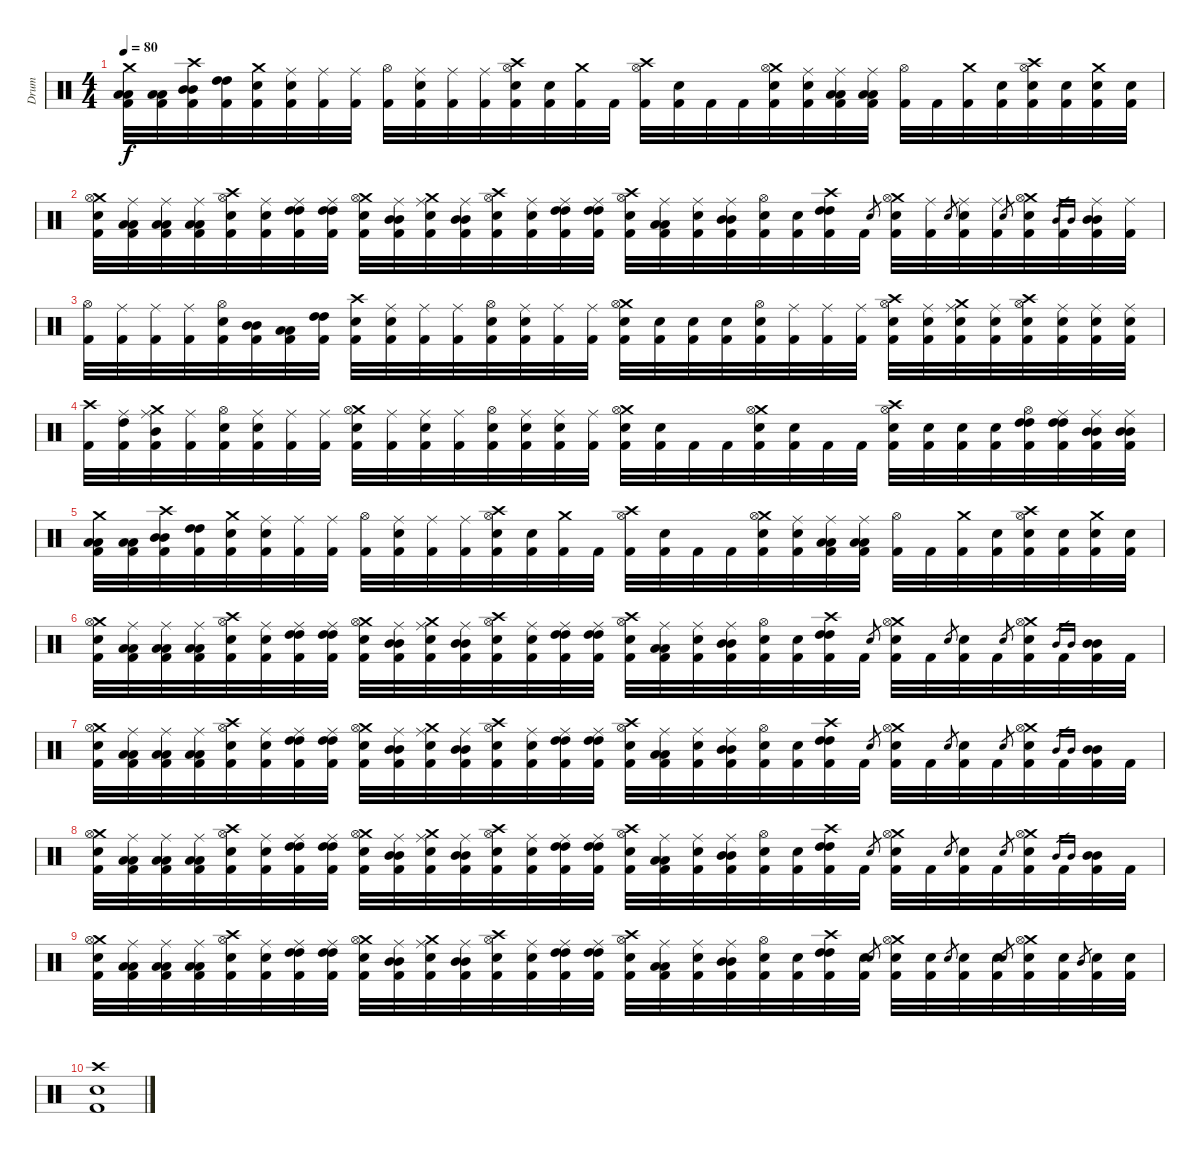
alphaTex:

\track ("Drum" "Drum") {instrument percussion}
\staff {score}
\articulation defaults
\ts (4 4)
\tempo 80
\clef neutral
\ks c
("Crash medium (hit)" "Low Tom (hit)" "Low Tom (hit)" "Kick (hit) 2").32{dy f} ("Low Tom (hit)" "Low Tom (hit)" "Kick (hit) 2").32 ("Crash high (hit)" "Mid Tom (hit)" "Mid Tom (hit)" "Kick (hit) 2").32 ("High Tom (hit)" "High Tom (hit)" "Kick (hit) 2").32 ("Crash medium (hit)" "Electric Snare (hit)" "Kick (hit) 2").32 ("Ride (middle)" "Electric Snare (hit)" "Kick (hit) 2").32 ("Ride (middle)" "Kick (hit) 2").32 ("Ride (middle)" "Kick (hit) 2").32 ("Hi-Hat (open)" "Kick (hit) 2").32 ("Ride (middle)" "Electric Snare (hit)" "Kick (hit) 2").32 ("Ride (middle)" "Kick (hit) 2").32 ("Ride (middle)" "Kick (hit) 2").32 ("Crash high (hit)" "Hi-Hat (open)" "Electric Snare (hit)" "Kick (hit) 2").32 ("Electric Snare (hit)" "Kick (hit) 2").32 ("Crash medium (hit)" "Kick (hit) 2").32 "Kick (hit) 2".32 ("Crash high (hit)" "Hi-Hat (open)" "Kick (hit) 2").32 ("Electric Snare (hit)" "Kick (hit) 2").32 "Kick (hit) 2".32 "Kick (hit) 2".32 ("Crash medium (hit)" "Hi-Hat (open)" "Electric Snare (hit)" "Kick (hit) 2").32 ("Ride (middle)" "Electric Snare (hit)" "Kick (hit) 2").32 ("Ride (middle)" "Low Tom (hit)" "Low Tom (hit)" "Kick (hit) 2").32 ("Ride (middle)" "Low Tom (hit)" "Low Tom (hit)" "Kick (hit) 2").32 ("Hi-Hat (open)" "Kick (hit) 2").32 "Kick (hit) 2".32 ("Crash medium (hit)" "Kick (hit) 2").32 ("Electric Snare (hit)" "Kick (hit) 2").32 ("Crash high (hit)" "Hi-Hat (open)" "Electric Snare (hit)" "Kick (hit) 2").32 ("Electric Snare (hit)" "Kick (hit) 2").32 ("Crash medium (hit)" "Electric Snare (hit)" "Kick (hit) 2").32 ("Electric Snare (hit)" "Kick (hit) 2").32 |
("Crash medium (hit)" "Hi-Hat (open)" "Electric Snare (hit)" "Kick (hit) 2").32 ("Ride (middle)" "Low Tom (hit)" "Low Tom (hit)" "Kick (hit) 2").32 ("Ride (middle)" "Low Tom (hit)" "Low Tom (hit)" "Kick (hit) 2").32 ("Ride (middle)" "Low Tom (hit)" "Low Tom (hit)" "Kick (hit) 2").32 ("Crash high (hit)" "Hi-Hat (open)" "Electric Snare (hit)" "Kick (hit) 2").32 ("Ride (middle)" "Electric Snare (hit)" "Kick (hit) 2").32 ("Ride (middle)" "High Tom (hit)" "High Tom (hit)" "Kick (hit) 2").32 ("Ride (middle)" "High Tom (hit)" "High Tom (hit)" "Kick (hit) 2").32 ("Crash medium (hit)" "Hi-Hat (open)" "Electric Snare (hit)" "Kick (hit) 2").32 ("Ride (middle)" "Mid Tom (hit)" "Mid Tom (hit)" "Kick (hit) 2").32 ("Ride (middle)" "Crash medium (hit)" "Electric Snare (hit)" "Kick (hit) 2").32 ("Ride (middle)" "Mid Tom (hit)" "Mid Tom (hit)" "Kick (hit) 2").32 ("Crash high (hit)" "Hi-Hat (open)" "Electric Snare (hit)" "Kick (hit) 2").32 ("Ride (middle)" "Electric Snare (hit)" "Kick (hit) 2").32 ("Ride (middle)" "High Tom (hit)" "High Tom (hit)" "Kick (hit) 2").32 ("Ride (middle)" "High Tom (hit)" "High Tom (hit)" "Kick (hit) 2").32 ("Crash high (hit)" "Hi-Hat (open)" "Electric Snare (hit)" "Kick (hit) 2").32 ("Ride (middle)" "Low Tom (hit)" "Low Tom (hit)" "Kick (hit) 2").32 ("Ride (middle)" "Electric Snare (hit)" "Kick (hit) 2").32 ("Ride (middle)" "Mid Tom (hit)" "Mid Tom (hit)" "Kick (hit) 2").32 ("Hi-Hat (open)" "Electric Snare (hit)" "Kick (hit) 2").32 ("Electric Snare (hit)" "Kick (hit) 2").32 ("Crash high (hit)" "High Tom (hit)" "High Tom (hit)" "Kick (hit) 2").32 "Kick (hit) 2".32 "Electric Snare (hit)".8{gr} ("Crash medium (hit)" "Hi-Hat (open)" "Electric Snare (hit)" "Kick (hit) 2").32 ("Ride (middle)" "Kick (hit) 2").32 "Electric Snare (hit)".8{gr} ("Ride (middle)" "Electric Snare (hit)" "Kick (hit) 2").32 ("Ride (middle)" "Kick (hit) 2").32 "Electric Snare (hit)".8{gr} ("Crash medium (hit)" "Hi-Hat (open)" "Electric Snare (hit)" "Kick (hit) 2").32 ("Ride (middle)" "Kick (hit) 2").32 "Mid Tom (hit)".16{gr} "Mid Tom (hit)".16{gr} ("Ride (middle)" "Mid Tom (hit)" "Mid Tom (hit)" "Kick (hit) 2").32 ("Ride (middle)" "Kick (hit) 2").32 |
("Hi-Hat (open)" "Kick (hit) 2").32 ("Ride (middle)" "Kick (hit) 2").32 ("Ride (middle)" "Kick (hit) 2").32 ("Ride (middle)" "Kick (hit) 2").32 ("Hi-Hat (open)" "Electric Snare (hit)" "Kick (hit) 2").32 ("Mid Tom (hit)" "Mid Tom (hit)" "Kick (hit) 2").32 ("Low Tom (hit)" "Low Tom (hit)" "Kick (hit) 2").32 ("High Tom (hit)" "High Tom (hit)" "Kick (hit) 2").32 ("Crash high (hit)" "Electric Snare (hit)" "Kick (hit) 2").32 ("Ride (middle)" "Electric Snare (hit)" "Kick (hit) 2").32 ("Ride (middle)" "Kick (hit) 2").32 ("Ride (middle)" "Kick (hit) 2").32 ("Hi-Hat (open)" "Electric Snare (hit)" "Kick (hit) 2").32 ("Ride (middle)" "Electric Snare (hit)" "Kick (hit) 2").32 ("Ride (middle)" "Kick (hit) 2").32 ("Ride (middle)" "Kick (hit) 2").32 ("Crash medium (hit)" "Hi-Hat (open)" "Electric Snare (hit)" "Kick (hit) 2").32 ("Electric Snare (hit)" "Kick (hit) 2").32 ("Electric Snare (hit)" "Kick (hit) 2").32 ("Electric Snare (hit)" "Kick (hit) 2").32 ("Hi-Hat (open)" "Electric Snare (hit)" "Kick (hit) 2").32 ("Ride (middle)" "Kick (hit) 2").32 ("Ride (middle)" "Kick (hit) 2").32 ("Ride (middle)" "Kick (hit) 2").32 ("Crash high (hit)" "Hi-Hat (open)" "Electric Snare (hit)" "Kick (hit) 2").32 ("Ride (middle)" "Electric Snare (hit)" "Kick (hit) 2").32 ("Ride (middle)" "Crash medium (hit)" "Electric Snare (hit)" "Kick (hit) 2").32 ("Ride (middle)" "Electric Snare (hit)" "Kick (hit) 2").32 ("Crash high (hit)" "Hi-Hat (open)" "Electric Snare (hit)" "Kick (hit) 2").32 ("Ride (middle)" "Electric Snare (hit)" "Kick (hit) 2").32 ("Ride (middle)" "Electric Snare (hit)" "Kick (hit) 2").32 ("Ride (middle)" "Electric Snare (hit)" "Kick (hit) 2").32 |
("Crash high (hit)" "Kick (hit) 2").32 ("Ride (middle)" "High Tom (hit)" "Kick (hit) 2").32 ("Ride (middle)" "Crash medium (hit)" "Mid Tom (hit)" "Kick (hit) 2").32 ("Ride (middle)" "Kick (hit) 2").32 ("Hi-Hat (open)" "Electric Snare (hit)" "Kick (hit) 2").32 ("Ride (middle)" "Electric Snare (hit)" "Kick (hit) 2").32 ("Ride (middle)" "Kick (hit) 2").32 ("Ride (middle)" "Kick (hit) 2").32 ("Crash medium (hit)" "Hi-Hat (open)" "Electric Snare (hit)" "Kick (hit) 2").32 ("Ride (middle)" "Kick (hit) 2").32 ("Ride (middle)" "Electric Snare (hit)" "Kick (hit) 2").32 ("Ride (middle)" "Kick (hit) 2").32 ("Hi-Hat (open)" "Electric Snare (hit)" "Kick (hit) 2").32 ("Ride (middle)" "Electric Snare (hit)" "Kick (hit) 2").32 ("Ride (middle)" "Electric Snare (hit)" "Kick (hit) 2").32 ("Ride (middle)" "Kick (hit) 2").32 ("Crash medium (hit)" "Hi-Hat (open)" "Electric Snare (hit)" "Kick (hit) 2").32 ("Electric Snare (hit)" "Kick (hit) 2").32 "Kick (hit) 2".32 "Kick (hit) 2".32 ("Crash medium (hit)" "Hi-Hat (open)" "Electric Snare (hit)" "Kick (hit) 2").32 ("Electric Snare (hit)" "Kick (hit) 2").32 "Kick (hit) 2".32 "Kick (hit) 2".32 ("Crash high (hit)" "Hi-Hat (open)" "Electric Snare (hit)" "Kick (hit) 2").32 ("Electric Snare (hit)" "Kick (hit) 2").32 ("Electric Snare (hit)" "Kick (hit) 2").32 ("Electric Snare (hit)" "Kick (hit) 2").32 ("Hi-Hat (open)" "High Tom (hit)" "High Tom (hit)" "Kick (hit) 2").32 ("Ride (middle)" "High Tom (hit)" "High Tom (hit)" "Kick (hit) 2").32 ("Ride (middle)" "Mid Tom (hit)" "Mid Tom (hit)" "Kick (hit) 2").32 ("Ride (middle)" "Mid Tom (hit)" "Mid Tom (hit)" "Kick (hit) 2").32 |
("Crash medium (hit)" "Low Tom (hit)" "Low Tom (hit)" "Kick (hit) 2").32 ("Low Tom (hit)" "Low Tom (hit)" "Kick (hit) 2").32 ("Crash high (hit)" "Mid Tom (hit)" "Mid Tom (hit)" "Kick (hit) 2").32 ("High Tom (hit)" "High Tom (hit)" "Kick (hit) 2").32 ("Crash medium (hit)" "Electric Snare (hit)" "Kick (hit) 2").32 ("Ride (middle)" "Electric Snare (hit)" "Kick (hit) 2").32 ("Ride (middle)" "Kick (hit) 2").32 ("Ride (middle)" "Kick (hit) 2").32 ("Hi-Hat (open)" "Kick (hit) 2").32 ("Ride (middle)" "Electric Snare (hit)" "Kick (hit) 2").32 ("Ride (middle)" "Kick (hit) 2").32 ("Ride (middle)" "Kick (hit) 2").32 ("Crash high (hit)" "Hi-Hat (open)" "Electric Snare (hit)" "Kick (hit) 2").32 ("Electric Snare (hit)" "Kick (hit) 2").32 ("Crash medium (hit)" "Kick (hit) 2").32 "Kick (hit) 2".32 ("Crash high (hit)" "Hi-Hat (open)" "Kick (hit) 2").32 ("Electric Snare (hit)" "Kick (hit) 2").32 "Kick (hit) 2".32 "Kick (hit) 2".32 ("Crash medium (hit)" "Hi-Hat (open)" "Electric Snare (hit)" "Kick (hit) 2").32 ("Ride (middle)" "Electric Snare (hit)" "Kick (hit) 2").32 ("Ride (middle)" "Low Tom (hit)" "Low Tom (hit)" "Kick (hit) 2").32 ("Ride (middle)" "Low Tom (hit)" "Low Tom (hit)" "Kick (hit) 2").32 ("Hi-Hat (open)" "Kick (hit) 2").32 "Kick (hit) 2".32 ("Crash medium (hit)" "Kick (hit) 2").32 ("Electric Snare (hit)" "Kick (hit) 2").32 ("Crash high (hit)" "Hi-Hat (open)" "Electric Snare (hit)" "Kick (hit) 2").32 ("Electric Snare (hit)" "Kick (hit) 2").32 ("Crash medium (hit)" "Electric Snare (hit)" "Kick (hit) 2").32 ("Electric Snare (hit)" "Kick (hit) 2").32 |
("Crash medium (hit)" "Hi-Hat (open)" "Electric Snare (hit)" "Kick (hit) 2").32 ("Ride (middle)" "Low Tom (hit)" "Low Tom (hit)" "Kick (hit) 2").32 ("Ride (middle)" "Low Tom (hit)" "Low Tom (hit)" "Kick (hit) 2").32 ("Ride (middle)" "Low Tom (hit)" "Low Tom (hit)" "Kick (hit) 2").32 ("Crash high (hit)" "Hi-Hat (open)" "Electric Snare (hit)" "Kick (hit) 2").32 ("Ride (middle)" "Electric Snare (hit)" "Kick (hit) 2").32 ("Ride (middle)" "High Tom (hit)" "High Tom (hit)" "Kick (hit) 2").32 ("Ride (middle)" "High Tom (hit)" "High Tom (hit)" "Kick (hit) 2").32 ("Crash medium (hit)" "Hi-Hat (open)" "Electric Snare (hit)" "Kick (hit) 2").32 ("Ride (middle)" "Mid Tom (hit)" "Mid Tom (hit)" "Kick (hit) 2").32 ("Ride (middle)" "Crash medium (hit)" "Electric Snare (hit)" "Kick (hit) 2").32 ("Ride (middle)" "Mid Tom (hit)" "Mid Tom (hit)" "Kick (hit) 2").32 ("Crash high (hit)" "Hi-Hat (open)" "Electric Snare (hit)" "Kick (hit) 2").32 ("Ride (middle)" "Electric Snare (hit)" "Kick (hit) 2").32 ("Ride (middle)" "High Tom (hit)" "High Tom (hit)" "Kick (hit) 2").32 ("Ride (middle)" "High Tom (hit)" "High Tom (hit)" "Kick (hit) 2").32 ("Crash high (hit)" "Hi-Hat (open)" "Electric Snare (hit)" "Kick (hit) 2").32 ("Ride (middle)" "Low Tom (hit)" "Low Tom (hit)" "Kick (hit) 2").32 ("Ride (middle)" "Electric Snare (hit)" "Kick (hit) 2").32 ("Ride (middle)" "Mid Tom (hit)" "Mid Tom (hit)" "Kick (hit) 2").32 ("Hi-Hat (open)" "Electric Snare (hit)" "Kick (hit) 2").32 ("Electric Snare (hit)" "Kick (hit) 2").32 ("Crash high (hit)" "High Tom (hit)" "High Tom (hit)" "Kick (hit) 2").32 "Kick (hit) 2".32 "Electric Snare (hit)".8{gr} ("Crash medium (hit)" "Hi-Hat (open)" "Electric Snare (hit)" "Kick (hit) 2").32 "Kick (hit) 2".32 "Electric Snare (hit)".8{gr} ("Electric Snare (hit)" "Kick (hit) 2").32 "Kick (hit) 2".32 "Electric Snare (hit)".8{gr} ("Crash medium (hit)" "Hi-Hat (open)" "Electric Snare (hit)" "Kick (hit) 2").32 "Kick (hit) 2".32 "Mid Tom (hit)".16{gr} "Mid Tom (hit)".16{gr} ("Mid Tom (hit)" "Mid Tom (hit)" "Kick (hit) 2").32 "Kick (hit) 2".32 |
("Crash medium (hit)" "Hi-Hat (open)" "Electric Snare (hit)" "Kick (hit) 2").32 ("Ride (middle)" "Low Tom (hit)" "Low Tom (hit)" "Kick (hit) 2").32 ("Ride (middle)" "Low Tom (hit)" "Low Tom (hit)" "Kick (hit) 2").32 ("Ride (middle)" "Low Tom (hit)" "Low Tom (hit)" "Kick (hit) 2").32 ("Crash high (hit)" "Hi-Hat (open)" "Electric Snare (hit)" "Kick (hit) 2").32 ("Ride (middle)" "Electric Snare (hit)" "Kick (hit) 2").32 ("Ride (middle)" "High Tom (hit)" "High Tom (hit)" "Kick (hit) 2").32 ("Ride (middle)" "High Tom (hit)" "High Tom (hit)" "Kick (hit) 2").32 ("Crash medium (hit)" "Hi-Hat (open)" "Electric Snare (hit)" "Kick (hit) 2").32 ("Ride (middle)" "Mid Tom (hit)" "Mid Tom (hit)" "Kick (hit) 2").32 ("Ride (middle)" "Crash medium (hit)" "Electric Snare (hit)" "Kick (hit) 2").32 ("Ride (middle)" "Mid Tom (hit)" "Mid Tom (hit)" "Kick (hit) 2").32 ("Crash high (hit)" "Hi-Hat (open)" "Electric Snare (hit)" "Kick (hit) 2").32 ("Ride (middle)" "Electric Snare (hit)" "Kick (hit) 2").32 ("Ride (middle)" "High Tom (hit)" "High Tom (hit)" "Kick (hit) 2").32 ("Ride (middle)" "High Tom (hit)" "High Tom (hit)" "Kick (hit) 2").32 ("Crash high (hit)" "Hi-Hat (open)" "Electric Snare (hit)" "Kick (hit) 2").32 ("Ride (middle)" "Low Tom (hit)" "Low Tom (hit)" "Kick (hit) 2").32 ("Ride (middle)" "Electric Snare (hit)" "Kick (hit) 2").32 ("Ride (middle)" "Mid Tom (hit)" "Mid Tom (hit)" "Kick (hit) 2").32 ("Hi-Hat (open)" "Electric Snare (hit)" "Kick (hit) 2").32 ("Electric Snare (hit)" "Kick (hit) 2").32 ("Crash high (hit)" "High Tom (hit)" "High Tom (hit)" "Kick (hit) 2").32 "Kick (hit) 2".32 "Electric Snare (hit)".8{gr} ("Crash medium (hit)" "Hi-Hat (open)" "Electric Snare (hit)" "Kick (hit) 2").32 "Kick (hit) 2".32 "Electric Snare (hit)".8{gr} ("Electric Snare (hit)" "Kick (hit) 2").32 "Kick (hit) 2".32 "Electric Snare (hit)".8{gr} ("Crash medium (hit)" "Hi-Hat (open)" "Electric Snare (hit)" "Kick (hit) 2").32 "Kick (hit) 2".32 "Mid Tom (hit)".16{gr} "Mid Tom (hit)".16{gr} ("Mid Tom (hit)" "Mid Tom (hit)" "Kick (hit) 2").32 "Kick (hit) 2".32 |
("Crash medium (hit)" "Hi-Hat (open)" "Electric Snare (hit)" "Kick (hit) 2").32 ("Ride (middle)" "Low Tom (hit)" "Low Tom (hit)" "Kick (hit) 2").32 ("Ride (middle)" "Low Tom (hit)" "Low Tom (hit)" "Kick (hit) 2").32 ("Ride (middle)" "Low Tom (hit)" "Low Tom (hit)" "Kick (hit) 2").32 ("Crash high (hit)" "Hi-Hat (open)" "Electric Snare (hit)" "Kick (hit) 2").32 ("Ride (middle)" "Electric Snare (hit)" "Kick (hit) 2").32 ("Ride (middle)" "High Tom (hit)" "High Tom (hit)" "Kick (hit) 2").32 ("Ride (middle)" "High Tom (hit)" "High Tom (hit)" "Kick (hit) 2").32 ("Crash medium (hit)" "Hi-Hat (open)" "Electric Snare (hit)" "Kick (hit) 2").32 ("Ride (middle)" "Mid Tom (hit)" "Mid Tom (hit)" "Kick (hit) 2").32 ("Ride (middle)" "Crash medium (hit)" "Electric Snare (hit)" "Kick (hit) 2").32 ("Ride (middle)" "Mid Tom (hit)" "Mid Tom (hit)" "Kick (hit) 2").32 ("Crash high (hit)" "Hi-Hat (open)" "Electric Snare (hit)" "Kick (hit) 2").32 ("Ride (middle)" "Electric Snare (hit)" "Kick (hit) 2").32 ("Ride (middle)" "High Tom (hit)" "High Tom (hit)" "Kick (hit) 2").32 ("Ride (middle)" "High Tom (hit)" "High Tom (hit)" "Kick (hit) 2").32 ("Crash high (hit)" "Hi-Hat (open)" "Electric Snare (hit)" "Kick (hit) 2").32 ("Ride (middle)" "Low Tom (hit)" "Low Tom (hit)" "Kick (hit) 2").32 ("Ride (middle)" "Electric Snare (hit)" "Kick (hit) 2").32 ("Ride (middle)" "Mid Tom (hit)" "Mid Tom (hit)" "Kick (hit) 2").32 ("Hi-Hat (open)" "Electric Snare (hit)" "Kick (hit) 2").32 ("Electric Snare (hit)" "Kick (hit) 2").32 ("Crash high (hit)" "High Tom (hit)" "High Tom (hit)" "Kick (hit) 2").32 "Kick (hit) 2".32 "Electric Snare (hit)".8{gr} ("Crash medium (hit)" "Hi-Hat (open)" "Electric Snare (hit)" "Kick (hit) 2").32 "Kick (hit) 2".32 "Electric Snare (hit)".8{gr} ("Electric Snare (hit)" "Kick (hit) 2").32 "Kick (hit) 2".32 "Electric Snare (hit)".8{gr} ("Crash medium (hit)" "Hi-Hat (open)" "Electric Snare (hit)" "Kick (hit) 2").32 "Kick (hit) 2".32 "Mid Tom (hit)".16{gr} "Mid Tom (hit)".16{gr} ("Mid Tom (hit)" "Mid Tom (hit)" "Kick (hit) 2").32 "Kick (hit) 2".32 |
("Crash medium (hit)" "Hi-Hat (open)" "Electric Snare (hit)" "Kick (hit) 2").32 ("Ride (middle)" "Low Tom (hit)" "Low Tom (hit)" "Kick (hit) 2").32 ("Ride (middle)" "Low Tom (hit)" "Low Tom (hit)" "Kick (hit) 2").32 ("Ride (middle)" "Low Tom (hit)" "Low Tom (hit)" "Kick (hit) 2").32 ("Crash high (hit)" "Hi-Hat (open)" "Electric Snare (hit)" "Kick (hit) 2").32 ("Ride (middle)" "Electric Snare (hit)" "Kick (hit) 2").32 ("Ride (middle)" "High Tom (hit)" "High Tom (hit)" "Kick (hit) 2").32 ("Ride (middle)" "High Tom (hit)" "High Tom (hit)" "Kick (hit) 2").32 ("Crash medium (hit)" "Hi-Hat (open)" "Electric Snare (hit)" "Kick (hit) 2").32 ("Ride (middle)" "Mid Tom (hit)" "Mid Tom (hit)" "Kick (hit) 2").32 ("Ride (middle)" "Crash medium (hit)" "Electric Snare (hit)" "Kick (hit) 2").32 ("Ride (middle)" "Mid Tom (hit)" "Mid Tom (hit)" "Kick (hit) 2").32 ("Crash high (hit)" "Hi-Hat (open)" "Electric Snare (hit)" "Kick (hit) 2").32 ("Ride (middle)" "Electric Snare (hit)" "Kick (hit) 2").32 ("Ride (middle)" "High Tom (hit)" "High Tom (hit)" "Kick (hit) 2").32 ("Ride (middle)" "High Tom (hit)" "High Tom (hit)" "Kick (hit) 2").32 ("Crash high (hit)" "Hi-Hat (open)" "Electric Snare (hit)" "Kick (hit) 2").32 ("Ride (middle)" "Low Tom (hit)" "Low Tom (hit)" "Kick (hit) 2").32 ("Ride (middle)" "Electric Snare (hit)" "Kick (hit) 2").32 ("Ride (middle)" "Mid Tom (hit)" "Mid Tom (hit)" "Kick (hit) 2").32 ("Hi-Hat (open)" "Electric Snare (hit)" "Kick (hit) 2").32 ("Electric Snare (hit)" "Kick (hit) 2").32 ("Crash high (hit)" "High Tom (hit)" "High Tom (hit)" "Kick (hit) 2").32 ("Electric Snare (hit)" "Kick (hit) 2").32 "Electric Snare (hit)".8{gr} ("Crash medium (hit)" "Hi-Hat (open)" "Electric Snare (hit)" "Kick (hit) 2").32 ("Electric Snare (hit)" "Kick (hit) 2").32 "Electric Snare (hit)".8{gr} ("Electric Snare (hit)" "Kick (hit) 2").32 ("Electric Snare (hit)" "Kick (hit) 2").32 "Electric Snare (hit)".8{gr} ("Crash medium (hit)" "Hi-Hat (open)" "Electric Snare (hit)" "Kick (hit) 2").32 ("Electric Snare (hit)" "Kick (hit) 2").32 "Mid Tom (hit)".8{gr} ("Electric Snare (hit)" "Kick (hit) 2").32 ("Electric Snare (hit)" "Kick (hit) 2").32 |
("Crash high (hit)" "Electric Snare (hit)" "Kick (hit) 2").1
